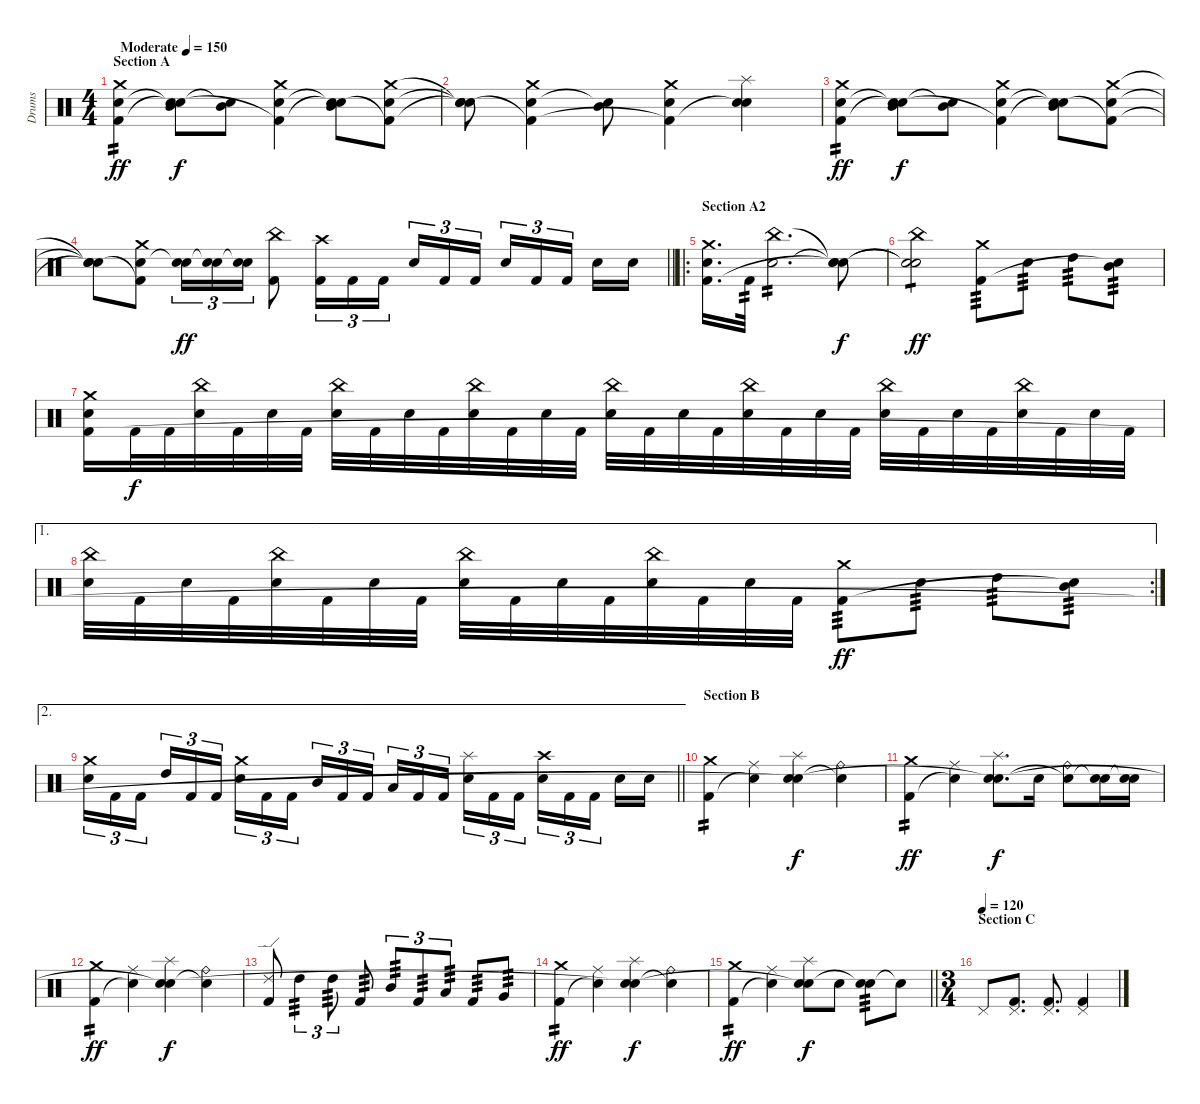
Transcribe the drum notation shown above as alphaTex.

\track ("Drums" "Drums") {instrument percussion}
\staff {score}
\articulation defaults
\ts (4 4)
\section ("" "Section A")
\tempo (150 "Moderate")
\clef neutral
\ks c
("Crash medium (hit)" "Electric Snare (hit)" "Kick (hit) 2").4{tp 2 dy ff} ("Mid Tom (hit)" "Electric Snare (hit)"{t} "Snare (hit)"{t}).8{dy f} ("Mid Tom (hit)" "Snare (hit)"{t}).8 ("Crash medium (hit)" "Electric Snare (hit)" "Kick (hit) 2"{t}).4 ("Mid Tom (hit)" "Electric Snare (hit)"{t} "Snare (hit)"{t}).8 ("Crash medium (hit)" "Electric Snare (hit)" "Kick (hit) 2"{t}).8 |
("Snare (hit)"{t} "Snare (hit)"{t} "Snare (hit)"{t}).8 ("Crash medium (hit)" "Electric Snare (hit)" "Kick (hit) 2"{t}).4 ("Mid Tom (hit)" "Snare (hit)"{t}).8 ("Crash medium (hit)" "Electric Snare (hit)" "Kick (hit) 2"{t}).4 ("Splash (hit)" "Electric Snare (hit)" "Snare (hit)"{t}).4 |
("Crash medium (hit)" "Electric Snare (hit)" "Kick (hit) 2").4{tp 2 dy ff} ("Mid Tom (hit)" "Electric Snare (hit)"{t} "Snare (hit)"{t}).8{dy f} ("Mid Tom (hit)" "Snare (hit)"{t}).8 ("Crash medium (hit)" "Electric Snare (hit)" "Kick (hit) 2"{t}).4 ("Mid Tom (hit)" "Electric Snare (hit)"{t} "Snare (hit)"{t}).8 ("Crash medium (hit)" "Electric Snare (hit)" "Kick (hit) 2"{t}).8 |
\barLineRight lightlight
("Snare (hit)"{t} "Snare (hit)"{t} "Snare (hit)"{t}).8 ("Crash medium (hit)" "Electric Snare (hit)" "Kick (hit) 2"{t}).8 ("Electric Snare (hit)" "Snare (hit)"{t}).16{tu (3 2) dy ff} ("Electric Snare (hit)" "Snare (hit)"{t}).16{tu (3 2)} ("Electric Snare (hit)" "Snare (hit)"{t}).16{tu (3 2)} ("China (hit)" "Kick (hit) 2").8 ("Crash high (hit)" "Kick (hit) 2").16{tu (3 2)} "Kick (hit) 2".16{tu (3 2)} "Kick (hit) 2".16{tu (3 2) beam splitsecondary} "Electric Snare (hit)".16{tu (3 2)} "Kick (hit) 2".16{tu (3 2)} "Kick (hit) 2".16{tu (3 2)} "Electric Snare (hit)".16{tu (3 2)} "Kick (hit) 2".16{tu (3 2)} "Kick (hit) 2".16{tu (3 2) beam splitsecondary} "Electric Snare (hit)".16 "Electric Snare (hit)".16 |
\ro
\section ("" "Section A2")
("Crash medium (hit)" "Electric Snare (hit)" "Kick (hit) 2").16{d} "Kick (hit) 2".32{tp 2} ("China (hit)" "Electric Snare (hit)").2{d tp 2} ("Snare (hit)"{t} "Snare (hit)"{t} "Snare (hit)"{t}).8{dy f} |
("China (hit)" "Snare (hit)"{t} "Snare (hit)"{t}).2{tp 1 dy ff} ("Crash medium (hit)" "Kick (hit) 2").8{tp 3} "Electric Snare (hit)".8{tp 3} "High Tom (hit)".8{tp 3} ("Mid Tom (hit)" "Snare (hit)"{t}).8{tp 3} |
("Crash medium (hit)" "Electric Snare (hit)" "Kick (hit) 2").16 "Kick (hit) 2".32{dy f} "Kick (hit) 2".32 ("China (hit)" "Electric Snare (hit)").32 "Kick (hit) 2".32 "Electric Snare (hit)".32 "Kick (hit) 2".32 ("China (hit)" "Electric Snare (hit)").32 "Kick (hit) 2".32 "Electric Snare (hit)".32 "Kick (hit) 2".32 ("China (hit)" "Electric Snare (hit)").32 "Kick (hit) 2".32 "Electric Snare (hit)".32 "Kick (hit) 2".32 ("China (hit)" "Electric Snare (hit)").32 "Kick (hit) 2".32 "Electric Snare (hit)".32 "Kick (hit) 2".32 ("China (hit)" "Electric Snare (hit)").32 "Kick (hit) 2".32 "Electric Snare (hit)".32 "Kick (hit) 2".32 ("China (hit)" "Electric Snare (hit)").32 "Kick (hit) 2".32 "Electric Snare (hit)".32 "Kick (hit) 2".32 ("China (hit)" "Electric Snare (hit)").32 "Kick (hit) 2".32 "Electric Snare (hit)".32 "Kick (hit) 2".32 |
\ae 1
\rc 2
("China (hit)" "Electric Snare (hit)").32 "Kick (hit) 2".32 "Electric Snare (hit)".32 "Kick (hit) 2".32 ("China (hit)" "Electric Snare (hit)").32 "Kick (hit) 2".32 "Electric Snare (hit)".32 "Kick (hit) 2".32 ("China (hit)" "Electric Snare (hit)").32 "Kick (hit) 2".32 "Electric Snare (hit)".32 "Kick (hit) 2".32 ("China (hit)" "Electric Snare (hit)").32 "Kick (hit) 2".32 "Electric Snare (hit)".32 "Kick (hit) 2".32 ("Crash medium (hit)" "Kick (hit) 2").8{tp 3 dy ff} "Electric Snare (hit)".8{tp 3} "High Tom (hit)".8{tp 3} ("Mid Tom (hit)" "Snare (hit)"{t}).8{tp 3} |
\ae 2
\barLineRight lightlight
("Crash medium (hit)" "Electric Snare (hit)").16{tu (3 2)} "Kick (hit) 2".16{tu (3 2)} "Kick (hit) 2".16{tu (3 2) beam splitsecondary} "High Tom (hit)".16{tu (3 2)} "Kick (hit) 2".16{tu (3 2)} "Kick (hit) 2".16{tu (3 2)} ("Crash medium (hit)" "Electric Snare (hit)").16{tu (3 2)} "Kick (hit) 2".16{tu (3 2)} "Kick (hit) 2".16{tu (3 2) beam splitsecondary} "Mid Tom (hit)".16{tu (3 2)} "Kick (hit) 2".16{tu (3 2)} "Kick (hit) 2".16{tu (3 2)} "Low Tom (hit)".16{tu (3 2)} "Kick (hit) 2".16{tu (3 2)} "Kick (hit) 2".16{tu (3 2) beam splitsecondary} ("Splash (hit)" "Electric Snare (hit)").16{tu (3 2)} "Kick (hit) 2".16{tu (3 2)} "Kick (hit) 2".16{tu (3 2)} ("Crash high (hit)" "Electric Snare (hit)").16{tu (3 2)} "Kick (hit) 2".16{tu (3 2)} "Kick (hit) 2".16{tu (3 2) beam splitsecondary} "Electric Snare (hit)".16 "Electric Snare (hit)".16 |
\section ("" "Section B")
("Crash medium (hit)" "Kick (hit) 2").4{tp 2} ("Ride (middle)" "Snare (hit)"{t}).4 ("Splash (hit)" "Electric Snare (hit)" "Snare (hit)"{t}).4{dy f} ("Ride (bell)" "Snare (hit)"{t}).4 |
("Crash medium (hit)" "Kick (hit) 2").4{tp 2 dy ff} ("Ride (middle)" "Snare (hit)"{t}).4 ("Splash (hit)" "Electric Snare (hit)" "Snare (hit)"{t}).8{d dy f} "Electric Snare (hit)".16 ("Ride (bell)" "Snare (hit)"{t}).8 ("Electric Snare (hit)" "Snare (hit)"{t}).16 ("Electric Snare (hit)" "Snare (hit)"{t}).16 |
("Crash medium (hit)" "Kick (hit) 2").4{tp 2 dy ff} ("Ride (middle)" "Snare (hit)"{t}).4 ("Splash (hit)" "Electric Snare (hit)" "Snare (hit)"{t}).4{dy f} ("Ride (bell)" "Snare (hit)"{t}).4 |
("Ride (edge) 2" "Kick (hit) 2").8 "High Tom (hit)".4{tu (3 2) tp 3} "High Tom (hit)".8{tu (3 2) tp 3} "Kick (hit) 2".8{tp 3} "Mid Tom (hit)".8{tu (3 2) tp 3} "Kick (hit) 2".8{tu (3 2) tp 3} "Low Tom (hit)".8{tu (3 2) tp 3} "Kick (hit) 2".8{tp 3} "Very Low Tom (hit)".8{tp 3} |
("Crash medium (hit)" "Kick (hit) 2").4{tp 2 dy ff} ("Ride (middle)" "Snare (hit)"{t}).4 ("Splash (hit)" "Electric Snare (hit)" "Snare (hit)"{t}).4{dy f} ("Ride (bell)" "Snare (hit)"{t}).4 |
\barLineRight lightlight
("Crash medium (hit)" "Kick (hit) 2").4{tp 2 dy ff} ("Ride (middle)" "Snare (hit)"{t}).4 ("Splash (hit)" "Electric Snare (hit)" "Snare (hit)"{t}).8{dy f} "Electric Snare (hit)".8 ("Electric Snare (hit)" "Snare (hit)"{t}).8{tp 3} "Snare (hit)"{t}.8 |
\ts (3 4)
\section ("" "Section C")
\tempo (120)
"Pedal Hi-Hat (hit)".8 ("Pedal Hi-Hat (hit)" "Kick (hit) 2").8{d} ("Pedal Hi-Hat (hit)" "Kick (hit) 2").8{d} ("Pedal Hi-Hat (hit)" "Kick (hit) 2").4
